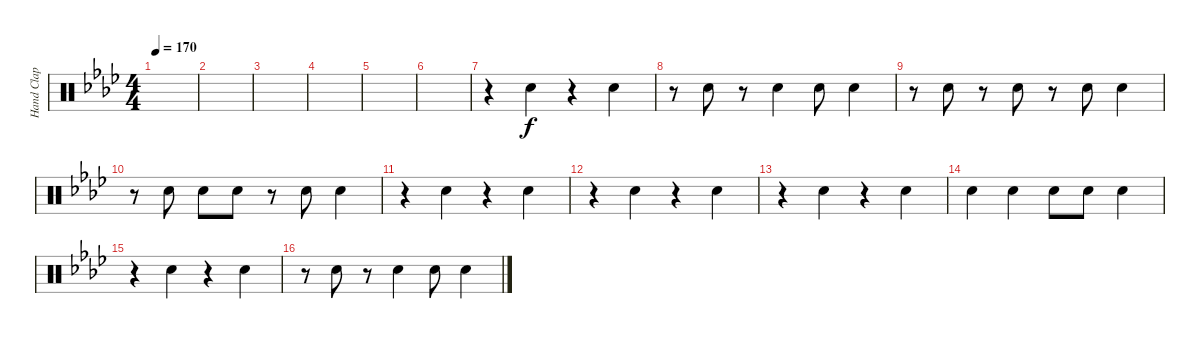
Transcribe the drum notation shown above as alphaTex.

\track ("Hand Clap" "Hand Clap") {instrument percussion}
\staff {score}
\articulation defaults
\ts (4 4)
\tempo 170
\clef neutral
\ks ab
|
|
|
|
|
|
r.4 "Hand Clap (hit)".4 r.4 "Hand Clap (hit)".4 |
r.8 "Hand Clap (hit)".8 r.8 "Hand Clap (hit)".4 "Hand Clap (hit)".8 "Hand Clap (hit)".4 |
r.8 "Hand Clap (hit)".8 r.8 "Hand Clap (hit)".8 r.8 "Hand Clap (hit)".8 "Hand Clap (hit)".4 |
r.8 "Hand Clap (hit)".8 "Hand Clap (hit)".8 "Hand Clap (hit)".8 r.8 "Hand Clap (hit)".8 "Hand Clap (hit)".4 |
r.4 "Hand Clap (hit)".4 r.4 "Hand Clap (hit)".4 |
r.4 "Hand Clap (hit)".4 r.4 "Hand Clap (hit)".4 |
r.4 "Hand Clap (hit)".4 r.4 "Hand Clap (hit)".4 |
"Hand Clap (hit)".4 "Hand Clap (hit)".4 "Hand Clap (hit)".8 "Hand Clap (hit)".8 "Hand Clap (hit)".4 |
r.4 "Hand Clap (hit)".4 r.4 "Hand Clap (hit)".4 |
r.8 "Hand Clap (hit)".8 r.8 "Hand Clap (hit)".4 "Hand Clap (hit)".8 "Hand Clap (hit)".4
